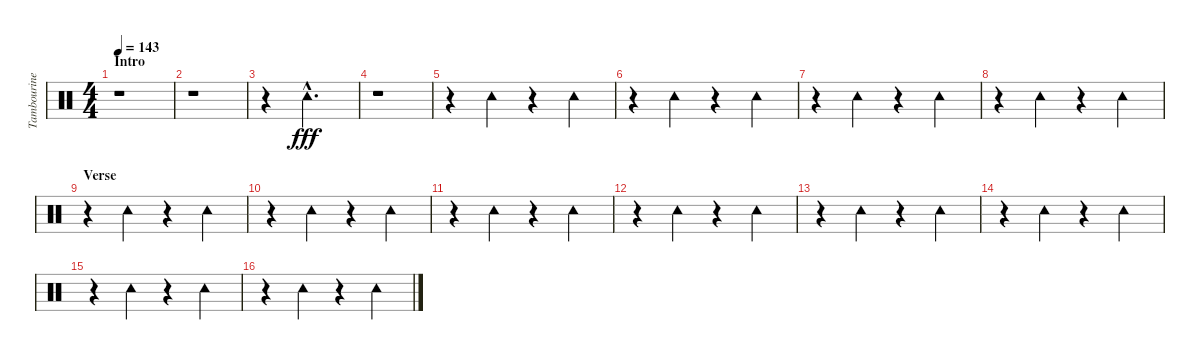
\track ("Tambourine" "Tambourine") {instrument percussion}
\staff {score}
\articulation defaults
\ts (4 4)
\section ("" "Intro")
\tempo 143
\clef neutral
\ks c
r.1{dy fff} |
r.1 |
r.4 "Tambourine (hit)"{hac}.2{d} |
r.1 |
r.4 "Tambourine (hit)".4 r.4 "Tambourine (hit)".4 |
r.4 "Tambourine (hit)".4 r.4 "Tambourine (hit)".4 |
r.4 "Tambourine (hit)".4 r.4 "Tambourine (hit)".4 |
r.4 "Tambourine (hit)".4 r.4 "Tambourine (hit)".4 |
\section ("" "Verse")
r.4 "Tambourine (hit)".4 r.4 "Tambourine (hit)".4 |
r.4 "Tambourine (hit)".4 r.4 "Tambourine (hit)".4 |
r.4 "Tambourine (hit)".4 r.4 "Tambourine (hit)".4 |
r.4 "Tambourine (hit)".4 r.4 "Tambourine (hit)".4 |
r.4 "Tambourine (hit)".4 r.4 "Tambourine (hit)".4 |
r.4 "Tambourine (hit)".4 r.4 "Tambourine (hit)".4 |
r.4 "Tambourine (hit)".4 r.4 "Tambourine (hit)".4 |
r.4 "Tambourine (hit)".4 r.4 "Tambourine (hit)".4
